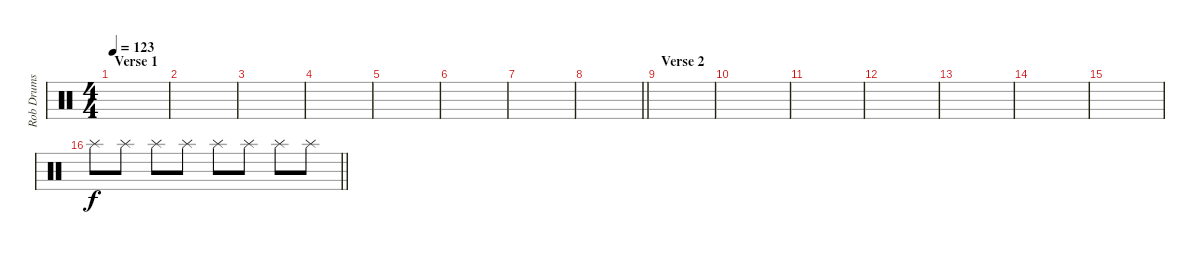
\track ("Rob Drums" "Rob Drums") {instrument percussion}
\staff {score}
\articulation defaults
\ts (4 4)
\section ("" "Verse 1")
\tempo 123
\clef neutral
\ks c
|
|
|
|
|
|
|
\barLineRight lightlight
|
\section ("" "Verse 2")
|
|
|
|
|
|
|
\barLineRight lightlight "Splash (hit)".8 "Splash (hit)".8 "Splash (hit)".8 "Splash (hit)".8 "Splash (hit)".8 "Splash (hit)".8 "Splash (hit)".8 "Splash (hit)".8
